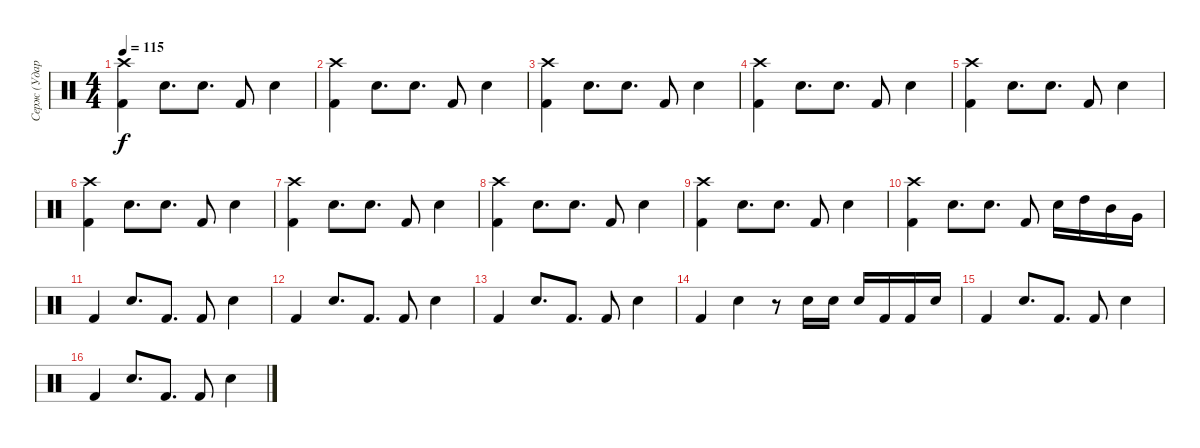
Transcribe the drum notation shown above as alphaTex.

\track ("Серж (Ударные)" "Серж (Удар") {instrument percussion}
\staff {score}
\articulation defaults
\ts (4 4)
\tempo 115
\clef neutral
\ks c
("Kick (hit) 2" "Crash high (hit)").4{dy f} "Snare (hit) 2".8{d} "Snare (hit) 2".8{d} "Kick (hit) 2".8 "Snare (hit) 2".4 |
("Kick (hit) 2" "Crash high (hit)").4 "Snare (hit) 2".8{d} "Snare (hit) 2".8{d} "Kick (hit) 2".8 "Snare (hit) 2".4 |
("Kick (hit) 2" "Crash high (hit)").4 "Snare (hit) 2".8{d} "Snare (hit) 2".8{d} "Kick (hit) 2".8 "Snare (hit) 2".4 |
("Kick (hit) 2" "Crash high (hit)").4 "Snare (hit) 2".8{d} "Snare (hit) 2".8{d} "Kick (hit) 2".8 "Snare (hit) 2".4 |
("Kick (hit) 2" "Crash high (hit)").4 "Snare (hit) 2".8{d} "Snare (hit) 2".8{d} "Kick (hit) 2".8 "Snare (hit) 2".4 |
("Kick (hit) 2" "Crash high (hit)").4 "Snare (hit) 2".8{d} "Snare (hit) 2".8{d} "Kick (hit) 2".8 "Snare (hit) 2".4 |
("Kick (hit) 2" "Crash high (hit)").4 "Snare (hit) 2".8{d} "Snare (hit) 2".8{d} "Kick (hit) 2".8 "Snare (hit) 2".4 |
("Kick (hit) 2" "Crash high (hit)").4 "Snare (hit) 2".8{d} "Snare (hit) 2".8{d} "Kick (hit) 2".8 "Snare (hit) 2".4 |
("Kick (hit) 2" "Crash high (hit)").4 "Snare (hit) 2".8{d} "Snare (hit) 2".8{d} "Kick (hit) 2".8 "Snare (hit) 2".4 |
("Kick (hit) 2" "Crash high (hit)").4 "Snare (hit) 2".8{d} "Snare (hit) 2".8{d} "Kick (hit) 2".8 "Snare (hit) 2".16 "High Tom (hit)".16 "Mid Tom (hit)".16 "Very Low Tom (hit)".16 |
"Kick (hit) 2".4 "Snare (hit) 2".8{d} "Kick (hit) 2".8{d} "Kick (hit) 2".8 "Snare (hit) 2".4 |
"Kick (hit) 2".4 "Snare (hit) 2".8{d} "Kick (hit) 2".8{d} "Kick (hit) 2".8 "Snare (hit) 2".4 |
"Kick (hit) 2".4 "Snare (hit) 2".8{d} "Kick (hit) 2".8{d} "Kick (hit) 2".8 "Snare (hit) 2".4 |
"Kick (hit) 2".4 "Snare (hit) 2".4 r.8 "Snare (hit) 2".16 "Snare (hit) 2".16 "Snare (hit) 2".16 "Kick (hit) 2".16 "Kick (hit) 2".16 "Snare (hit) 2".16 |
"Kick (hit) 2".4 "Snare (hit) 2".8{d} "Kick (hit) 2".8{d} "Kick (hit) 2".8 "Snare (hit) 2".4 |
"Kick (hit) 2".4 "Snare (hit) 2".8{d} "Kick (hit) 2".8{d} "Kick (hit) 2".8 "Snare (hit) 2".4
